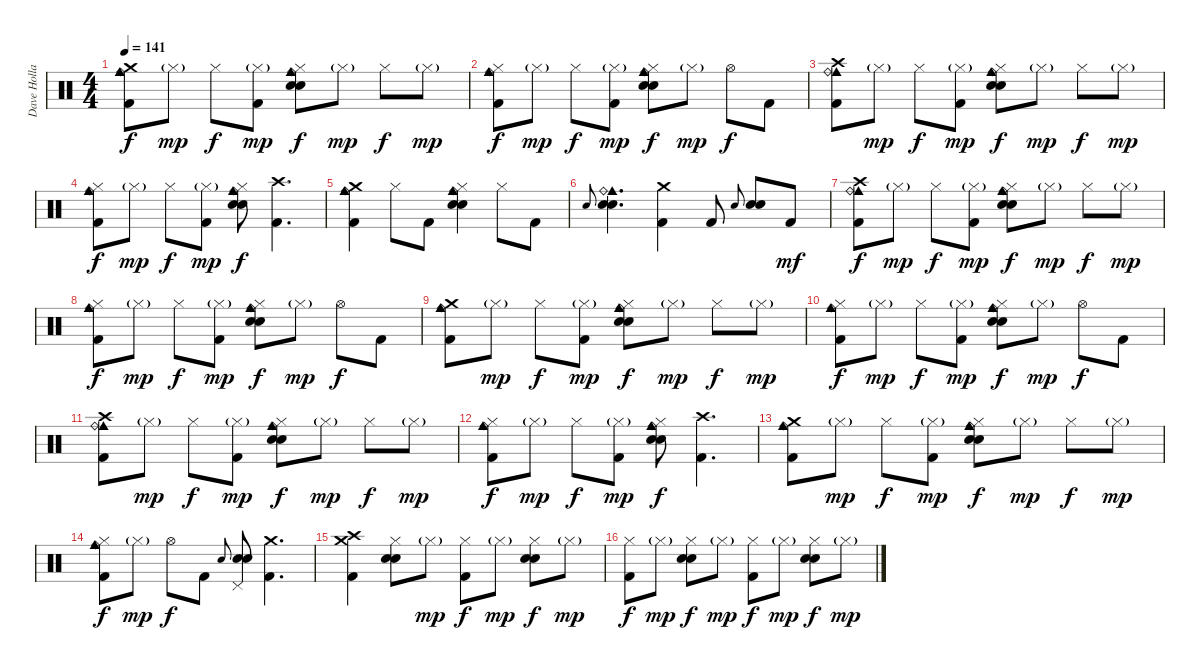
\track ("Dave Holland" "Dave Holla") {instrument percussion}
\staff {score}
\articulation defaults
\ts (4 4)
\tempo 141
\clef neutral
\ks c
("Crash medium (hit)" "Cowbell medium (hit)" "Ride (bell)" "Kick (hit) 2").8{dy f} "Hi-Hat (closed)"{g}.8{dy mp} "Hi-Hat (closed)".8{dy f} ("Hi-Hat (closed)"{g} "Kick (hit) 2").8{dy mp} ("Hi-Hat (closed)" "Cowbell medium (hit)" "Ride (bell)" "Electric Snare (hit)" "Snare (hit) 2").8{dy f} "Hi-Hat (closed)"{g}.8{dy mp} "Hi-Hat (closed)".8{dy f} "Hi-Hat (closed)"{g}.8{dy mp} |
("Hi-Hat (closed)" "Cowbell medium (hit)" "Ride (bell)" "Kick (hit) 2").8{dy f} "Hi-Hat (closed)"{g}.8{dy mp} "Hi-Hat (closed)".8{dy f} ("Hi-Hat (closed)"{g} "Kick (hit) 2").8{dy mp} ("Hi-Hat (closed)" "Cowbell medium (hit)" "Ride (bell)" "Electric Snare (hit)" "Snare (hit) 2").8{dy f} "Hi-Hat (closed)"{g}.8{dy mp} "Hi-Hat (open)".8{dy f} "Kick (hit) 2".8 |
("Crash high (hit)" "Cowbell medium (hit)" "Ride (bell)" "Kick (hit) 2").8 "Hi-Hat (closed)"{g}.8{dy mp} "Hi-Hat (closed)".8{dy f} ("Hi-Hat (closed)"{g} "Kick (hit) 2").8{dy mp} ("Hi-Hat (closed)" "Cowbell medium (hit)" "Ride (bell)" "Electric Snare (hit)" "Snare (hit) 2").8{dy f} "Hi-Hat (closed)"{g}.8{dy mp} "Hi-Hat (closed)".8{dy f} "Hi-Hat (closed)"{g}.8{dy mp} |
("Hi-Hat (closed)" "Cowbell medium (hit)" "Ride (bell)" "Kick (hit) 2").8{dy f} "Hi-Hat (closed)"{g}.8{dy mp} "Hi-Hat (closed)".8{dy f} ("Hi-Hat (closed)"{g} "Kick (hit) 2").8{dy mp} ("Hi-Hat (closed)" "Cowbell medium (hit)" "Ride (bell)" "Electric Snare (hit)" "Snare (hit) 2").8{dy f} ("Crash high (hit)" "Kick (hit) 2").4{d} |
("Crash medium (hit)" "Cowbell medium (hit)" "Ride (bell)" "Kick (hit) 2").4 "Hi-Hat (closed)".8 "Kick (hit) 2".8 ("Hi-Hat (closed)" "Cowbell medium (hit)" "Ride (bell)" "Electric Snare (hit)" "Snare (hit) 2").4 "Hi-Hat (closed)".8 "Kick (hit) 2".8 |
"Electric Snare (hit)".8{gr onbeat} ("Cowbell medium (hit)" "Ride (bell)" "Electric Snare (hit)" "Snare (hit) 2").4{d} ("Crash medium (hit)" "Kick (hit) 2").4 "Kick (hit) 2".8 "Electric Snare (hit)".8{gr onbeat} ("Electric Snare (hit)" "Snare (hit) 2").8 "Kick (hit) 2".8{dy mf} |
("Crash high (hit)" "Cowbell medium (hit)" "Ride (bell)" "Kick (hit) 2").8{dy f} "Hi-Hat (closed)"{g}.8{dy mp} "Hi-Hat (closed)".8{dy f} ("Hi-Hat (closed)"{g} "Kick (hit) 2").8{dy mp} ("Hi-Hat (closed)" "Cowbell medium (hit)" "Ride (bell)" "Electric Snare (hit)" "Snare (hit) 2").8{dy f} "Hi-Hat (closed)"{g}.8{dy mp} "Hi-Hat (closed)".8{dy f} "Hi-Hat (closed)"{g}.8{dy mp} |
("Hi-Hat (closed)" "Cowbell medium (hit)" "Ride (bell)" "Kick (hit) 2").8{dy f} "Hi-Hat (closed)"{g}.8{dy mp} "Hi-Hat (closed)".8{dy f} ("Hi-Hat (closed)"{g} "Kick (hit) 2").8{dy mp} ("Hi-Hat (closed)" "Cowbell medium (hit)" "Ride (bell)" "Electric Snare (hit)" "Snare (hit) 2").8{dy f} "Hi-Hat (closed)"{g}.8{dy mp} "Hi-Hat (open)".8{dy f} "Kick (hit) 2".8 |
("Crash medium (hit)" "Cowbell medium (hit)" "Ride (bell)" "Kick (hit) 2").8 "Hi-Hat (closed)"{g}.8{dy mp} "Hi-Hat (closed)".8{dy f} ("Hi-Hat (closed)"{g} "Kick (hit) 2").8{dy mp} ("Hi-Hat (closed)" "Cowbell medium (hit)" "Ride (bell)" "Electric Snare (hit)" "Snare (hit) 2").8{dy f} "Hi-Hat (closed)"{g}.8{dy mp} "Hi-Hat (closed)".8{dy f} "Hi-Hat (closed)"{g}.8{dy mp} |
("Hi-Hat (closed)" "Cowbell medium (hit)" "Ride (bell)" "Kick (hit) 2").8{dy f} "Hi-Hat (closed)"{g}.8{dy mp} "Hi-Hat (closed)".8{dy f} ("Hi-Hat (closed)"{g} "Kick (hit) 2").8{dy mp} ("Hi-Hat (closed)" "Cowbell medium (hit)" "Ride (bell)" "Electric Snare (hit)" "Snare (hit) 2").8{dy f} "Hi-Hat (closed)"{g}.8{dy mp} "Hi-Hat (open)".8{dy f} "Kick (hit) 2".8 |
("Crash high (hit)" "Cowbell medium (hit)" "Ride (bell)" "Kick (hit) 2").8 "Hi-Hat (closed)"{g}.8{dy mp} "Hi-Hat (closed)".8{dy f} ("Hi-Hat (closed)"{g} "Kick (hit) 2").8{dy mp} ("Hi-Hat (closed)" "Cowbell medium (hit)" "Ride (bell)" "Electric Snare (hit)" "Snare (hit) 2").8{dy f} "Hi-Hat (closed)"{g}.8{dy mp} "Hi-Hat (closed)".8{dy f} "Hi-Hat (closed)"{g}.8{dy mp} |
("Hi-Hat (closed)" "Cowbell medium (hit)" "Ride (bell)" "Kick (hit) 2").8{dy f} "Hi-Hat (closed)"{g}.8{dy mp} "Hi-Hat (closed)".8{dy f} ("Hi-Hat (closed)"{g} "Kick (hit) 2").8{dy mp} ("Hi-Hat (closed)" "Cowbell medium (hit)" "Ride (bell)" "Electric Snare (hit)" "Snare (hit) 2").8{dy f} ("Crash high (hit)" "Kick (hit) 2").4{d} |
("Crash medium (hit)" "Cowbell medium (hit)" "Ride (bell)" "Kick (hit) 2").8 "Hi-Hat (closed)"{g}.8{dy mp} "Hi-Hat (closed)".8{dy f} ("Hi-Hat (closed)"{g} "Kick (hit) 2").8{dy mp} ("Hi-Hat (closed)" "Cowbell medium (hit)" "Ride (bell)" "Electric Snare (hit)" "Snare (hit) 2").8{dy f} "Hi-Hat (closed)"{g}.8{dy mp} "Hi-Hat (closed)".8{dy f} "Hi-Hat (closed)"{g}.8{dy mp} |
("Hi-Hat (closed)" "Cowbell medium (hit)" "Ride (bell)" "Kick (hit) 2").8{dy f} "Hi-Hat (closed)"{g}.8{dy mp} "Hi-Hat (open)".8{dy f} "Kick (hit) 2".8 "Electric Snare (hit)".8{gr onbeat} ("Pedal Hi-Hat (hit)" "Electric Snare (hit)" "Snare (hit) 2").8 ("Crash medium (hit)" "Kick (hit) 2").4{d} |
("Crash high (hit)" "Crash medium (hit)" "Kick (hit) 2").4 ("Hi-Hat (closed)" "Electric Snare (hit)" "Snare (hit) 2").8 "Hi-Hat (closed)"{g}.8{dy mp} ("Hi-Hat (closed)" "Kick (hit) 2").8{dy f} "Hi-Hat (closed)"{g}.8{dy mp} ("Hi-Hat (closed)" "Electric Snare (hit)" "Snare (hit) 2").8{dy f} "Hi-Hat (closed)"{g}.8{dy mp} |
("Hi-Hat (closed)" "Kick (hit) 2").8{dy f} "Hi-Hat (closed)"{g}.8{dy mp} ("Hi-Hat (closed)" "Electric Snare (hit)" "Snare (hit) 2").8{dy f} "Hi-Hat (closed)"{g}.8{dy mp} ("Hi-Hat (closed)" "Kick (hit) 2").8{dy f} "Hi-Hat (closed)"{g}.8{dy mp} ("Hi-Hat (closed)" "Electric Snare (hit)" "Snare (hit) 2").8{dy f} "Hi-Hat (closed)"{g}.8{dy mp}
